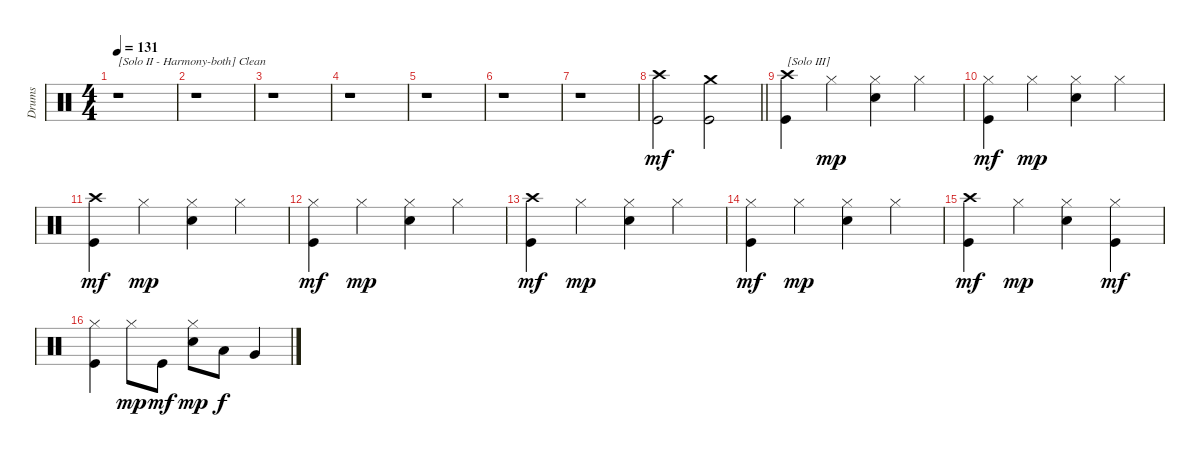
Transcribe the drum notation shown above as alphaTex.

\track ("Drums" "Drums") {instrument percussion}
\staff {score}
\articulation defaults
\ts (4 4)
\tempo 131
\clef neutral
\ks c
r.1{txt "[Solo II - Harmony-both] Clean" dy f} |
r.1 |
r.1 |
r.1 |
r.1 |
r.1 |
r.1 |
\barLineRight lightlight
("Crash high (hit)" "Kick (hit)").2{dy mf} ("Crash medium (hit)" "Kick (hit)").2 |
("Crash high (hit)" "Kick (hit)").4{txt "[Solo III]"} "Hi-Hat (closed)".4{dy mp} ("Hi-Hat (closed)" "Snare (hit) 2").4 "Hi-Hat (closed)".4 |
("Hi-Hat (closed)" "Kick (hit)").4{dy mf} "Hi-Hat (closed)".4{dy mp} ("Hi-Hat (closed)" "Snare (hit) 2").4 "Hi-Hat (closed)".4 |
("Crash high (hit)" "Kick (hit)").4{dy mf} "Hi-Hat (closed)".4{dy mp} ("Hi-Hat (closed)" "Snare (hit) 2").4 "Hi-Hat (closed)".4 |
("Hi-Hat (closed)" "Kick (hit)").4{dy mf} "Hi-Hat (closed)".4{dy mp} ("Hi-Hat (closed)" "Snare (hit) 2").4 "Hi-Hat (closed)".4 |
("Crash high (hit)" "Kick (hit)").4{dy mf} "Hi-Hat (closed)".4{dy mp} ("Hi-Hat (closed)" "Snare (hit) 2").4 "Hi-Hat (closed)".4 |
("Hi-Hat (closed)" "Kick (hit)").4{dy mf} "Hi-Hat (closed)".4{dy mp} ("Hi-Hat (closed)" "Snare (hit) 2").4 "Hi-Hat (closed)".4 |
("Crash high (hit)" "Kick (hit)").4{dy mf} "Hi-Hat (closed)".4{dy mp} ("Hi-Hat (closed)" "Snare (hit) 2").4 ("Hi-Hat (closed)" "Kick (hit)").4{dy mf} |
("Hi-Hat (closed)" "Kick (hit)").4 "Hi-Hat (closed)".8{dy mp} "Kick (hit)".8{dy mf} ("Hi-Hat (closed)" "Snare (hit) 2").8{dy mp} "Low Tom (hit)".8{dy f} "Very Low Tom (hit)".4
